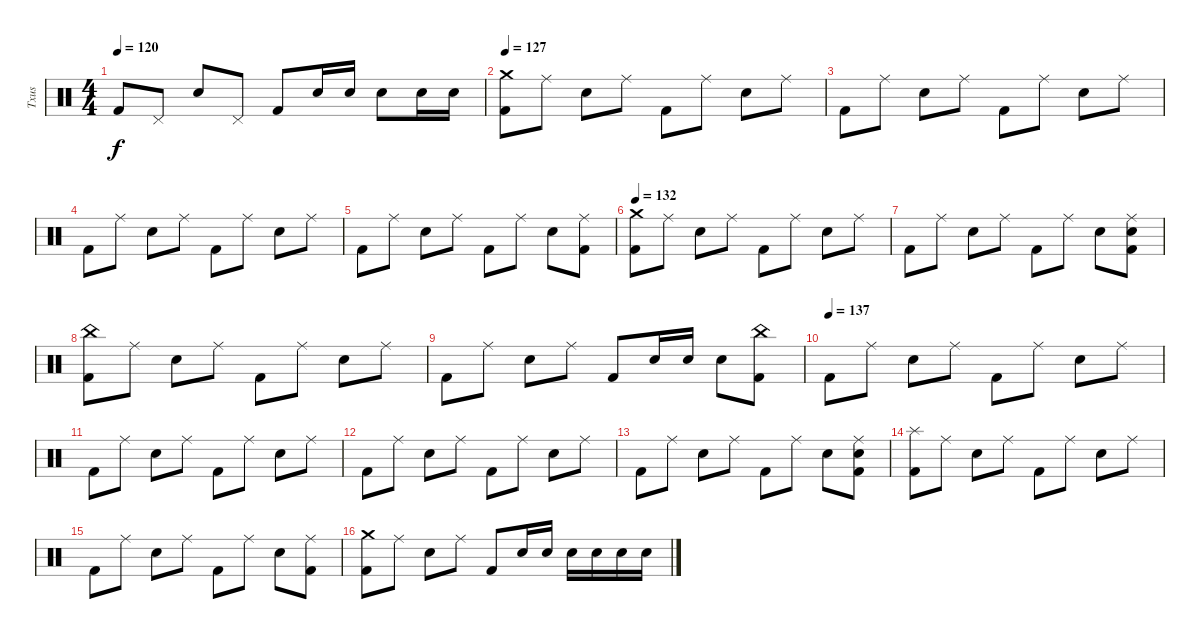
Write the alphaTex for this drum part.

\track ("Txus" "Txus") {instrument percussion}
\staff {score}
\articulation defaults
\ts (4 4)
\tempo 120
\clef neutral
\ks c "Kick (hit) 2".8{dy f} "Pedal Hi-Hat (hit)".8 "Electric Snare (hit)".8 "Pedal Hi-Hat (hit)".8 "Kick (hit) 2".8 "Electric Snare (hit)".16 "Electric Snare (hit)".16 "Electric Snare (hit)".8 "Electric Snare (hit)".16 "Electric Snare (hit)".16
|
\section ("" "")
\tempo 127
("Kick (hit) 2" "Crash medium (hit)").8 "Ride (middle)".8 "Electric Snare (hit)".8 "Ride (middle)".8 "Kick (hit) 2".8 "Ride (middle)".8 "Electric Snare (hit)".8 "Ride (middle)".8 |
"Kick (hit) 2".8 "Ride (middle)".8 "Electric Snare (hit)".8 "Ride (middle)".8 "Kick (hit) 2".8 "Ride (middle)".8 "Electric Snare (hit)".8 "Ride (middle)".8 |
"Kick (hit) 2".8 "Ride (middle)".8 "Electric Snare (hit)".8 "Ride (middle)".8 "Kick (hit) 2".8 "Ride (middle)".8 "Electric Snare (hit)".8 "Ride (middle)".8 |
"Kick (hit) 2".8 "Ride (middle)".8 "Electric Snare (hit)".8 "Ride (middle)".8 "Kick (hit) 2".8 "Ride (middle)".8 "Electric Snare (hit)".8 ("Kick (hit) 2" "Ride (middle)").8 |
\tempo 132
("Kick (hit) 2" "Crash medium (hit)").8 "Ride (middle)".8 "Electric Snare (hit)".8 "Ride (middle)".8 "Kick (hit) 2".8 "Ride (middle)".8 "Electric Snare (hit)".8 "Ride (middle)".8 |
"Kick (hit) 2".8 "Ride (middle)".8 "Electric Snare (hit)".8 "Ride (middle)".8 "Kick (hit) 2".8 "Ride (middle)".8 "Electric Snare (hit)".8 ("Kick (hit) 2" "Electric Snare (hit)" "Ride (middle)").8 |
("Kick (hit) 2" "China (hit)").8 "Ride (middle)".8 "Electric Snare (hit)".8 "Ride (middle)".8 "Kick (hit) 2".8 "Ride (middle)".8 "Electric Snare (hit)".8 "Ride (middle)".8 |
"Kick (hit) 2".8 "Ride (middle)".8 "Electric Snare (hit)".8 "Ride (middle)".8 "Kick (hit) 2".8 "Electric Snare (hit)".16 "Electric Snare (hit)".16 "Electric Snare (hit)".8 ("Kick (hit) 2" "China (hit)").8 |
\section ("" "")
\tempo (137)
"Kick (hit) 2".8 "Ride (middle)".8 "Electric Snare (hit)".8 "Ride (middle)".8 "Kick (hit) 2".8 "Ride (middle)".8 "Electric Snare (hit)".8 "Ride (middle)".8 |
"Kick (hit) 2".8 "Ride (middle)".8 "Electric Snare (hit)".8 "Ride (middle)".8 "Kick (hit) 2".8 "Ride (middle)".8 "Electric Snare (hit)".8 "Ride (middle)".8 |
"Kick (hit) 2".8 "Ride (middle)".8 "Electric Snare (hit)".8 "Ride (middle)".8 "Kick (hit) 2".8 "Ride (middle)".8 "Electric Snare (hit)".8 "Ride (middle)".8 |
"Kick (hit) 2".8 "Ride (middle)".8 "Electric Snare (hit)".8 "Ride (middle)".8 "Kick (hit) 2".8 "Ride (middle)".8 "Electric Snare (hit)".8 ("Kick (hit) 2" "Electric Snare (hit)" "Ride (middle)").8 |
("Kick (hit) 2" "Splash (hit)").8 "Ride (middle)".8 "Electric Snare (hit)".8 "Ride (middle)".8 "Kick (hit) 2".8 "Ride (middle)".8 "Electric Snare (hit)".8 "Ride (middle)".8 |
"Kick (hit) 2".8 "Ride (middle)".8 "Electric Snare (hit)".8 "Ride (middle)".8 "Kick (hit) 2".8 "Ride (middle)".8 "Electric Snare (hit)".8 ("Kick (hit) 2" "Ride (middle)").8 |
("Kick (hit) 2" "Crash medium (hit)").8 "Ride (middle)".8 "Electric Snare (hit)".8 "Ride (middle)".8 "Kick (hit) 2".8 "Electric Snare (hit)".16{volume 11} "Electric Snare (hit)".16{volume 16} "Electric Snare (hit)".16 "Electric Snare (hit)".16 "Electric Snare (hit)".16 "Electric Snare (hit)".16
